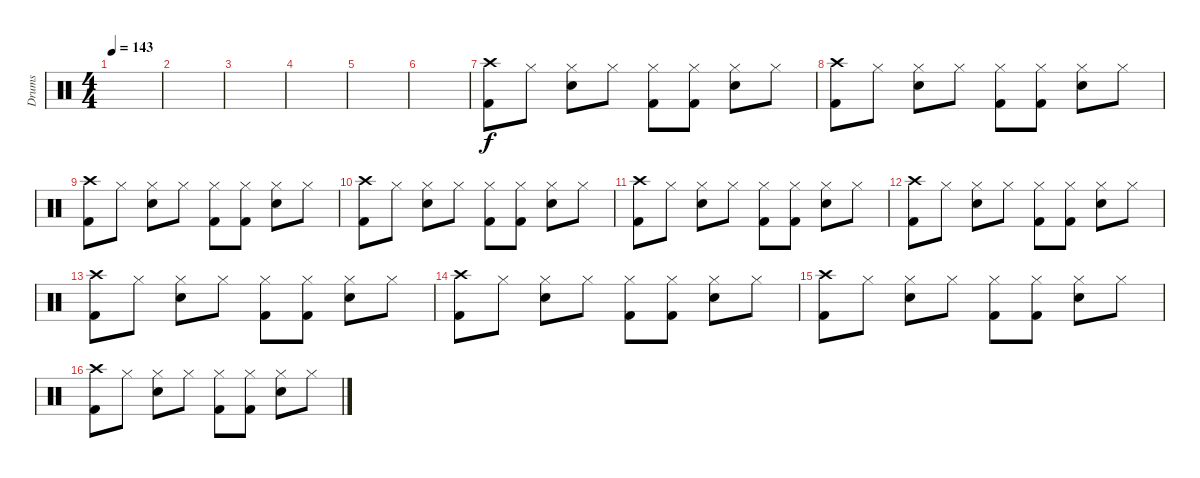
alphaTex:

\track ("Drums" "Drums") {instrument percussion}
\staff {score}
\articulation defaults
\ts (4 4)
\tempo 143
\clef neutral
\ks c
|
|
|
|
|
|
("Crash high (hit)" "Kick (hit) 2").8 "Hi-Hat (closed)".8 ("Hi-Hat (closed)" "Electric Snare (hit)").8 "Hi-Hat (closed)".8 ("Hi-Hat (closed)" "Kick (hit) 2").8 ("Hi-Hat (closed)" "Kick (hit) 2").8 ("Hi-Hat (closed)" "Electric Snare (hit)").8 "Hi-Hat (closed)".8 |
("Crash high (hit)" "Kick (hit) 2").8 "Hi-Hat (closed)".8 ("Hi-Hat (closed)" "Electric Snare (hit)").8 "Hi-Hat (closed)".8 ("Hi-Hat (closed)" "Kick (hit) 2").8 ("Hi-Hat (closed)" "Kick (hit) 2").8 ("Hi-Hat (closed)" "Electric Snare (hit)").8 "Hi-Hat (closed)".8 |
("Crash high (hit)" "Kick (hit) 2").8 "Hi-Hat (closed)".8 ("Hi-Hat (closed)" "Electric Snare (hit)").8 "Hi-Hat (closed)".8 ("Hi-Hat (closed)" "Kick (hit) 2").8 ("Hi-Hat (closed)" "Kick (hit) 2").8 ("Hi-Hat (closed)" "Electric Snare (hit)").8 "Hi-Hat (closed)".8 |
("Crash high (hit)" "Kick (hit) 2").8 "Hi-Hat (closed)".8 ("Hi-Hat (closed)" "Electric Snare (hit)").8 "Hi-Hat (closed)".8 ("Hi-Hat (closed)" "Kick (hit) 2").8 ("Hi-Hat (closed)" "Kick (hit) 2").8 ("Hi-Hat (closed)" "Electric Snare (hit)").8 "Hi-Hat (closed)".8 |
("Crash high (hit)" "Kick (hit) 2").8 "Hi-Hat (closed)".8 ("Hi-Hat (closed)" "Electric Snare (hit)").8 "Hi-Hat (closed)".8 ("Hi-Hat (closed)" "Kick (hit) 2").8 ("Hi-Hat (closed)" "Kick (hit) 2").8 ("Hi-Hat (closed)" "Electric Snare (hit)").8 "Hi-Hat (closed)".8 |
("Crash high (hit)" "Kick (hit) 2").8 "Hi-Hat (closed)".8 ("Hi-Hat (closed)" "Electric Snare (hit)").8 "Hi-Hat (closed)".8 ("Hi-Hat (closed)" "Kick (hit) 2").8 ("Hi-Hat (closed)" "Kick (hit) 2").8 ("Hi-Hat (closed)" "Electric Snare (hit)").8 "Hi-Hat (closed)".8 |
("Crash high (hit)" "Kick (hit) 2").8 "Hi-Hat (closed)".8 ("Hi-Hat (closed)" "Electric Snare (hit)").8 "Hi-Hat (closed)".8 ("Hi-Hat (closed)" "Kick (hit) 2").8 ("Hi-Hat (closed)" "Kick (hit) 2").8 ("Hi-Hat (closed)" "Electric Snare (hit)").8 "Hi-Hat (closed)".8 |
("Crash high (hit)" "Kick (hit) 2").8 "Hi-Hat (closed)".8 ("Hi-Hat (closed)" "Electric Snare (hit)").8 "Hi-Hat (closed)".8 ("Hi-Hat (closed)" "Kick (hit) 2").8 ("Hi-Hat (closed)" "Kick (hit) 2").8 ("Hi-Hat (closed)" "Electric Snare (hit)").8 "Hi-Hat (closed)".8 |
("Crash high (hit)" "Kick (hit) 2").8 "Hi-Hat (closed)".8 ("Hi-Hat (closed)" "Electric Snare (hit)").8 "Hi-Hat (closed)".8 ("Hi-Hat (closed)" "Kick (hit) 2").8 ("Hi-Hat (closed)" "Kick (hit) 2").8 ("Hi-Hat (closed)" "Electric Snare (hit)").8 "Hi-Hat (closed)".8 |
("Crash high (hit)" "Kick (hit) 2").8 "Hi-Hat (closed)".8 ("Hi-Hat (closed)" "Electric Snare (hit)").8 "Hi-Hat (closed)".8 ("Hi-Hat (closed)" "Kick (hit) 2").8 ("Hi-Hat (closed)" "Kick (hit) 2").8 ("Hi-Hat (closed)" "Electric Snare (hit)").8 "Hi-Hat (closed)".8
